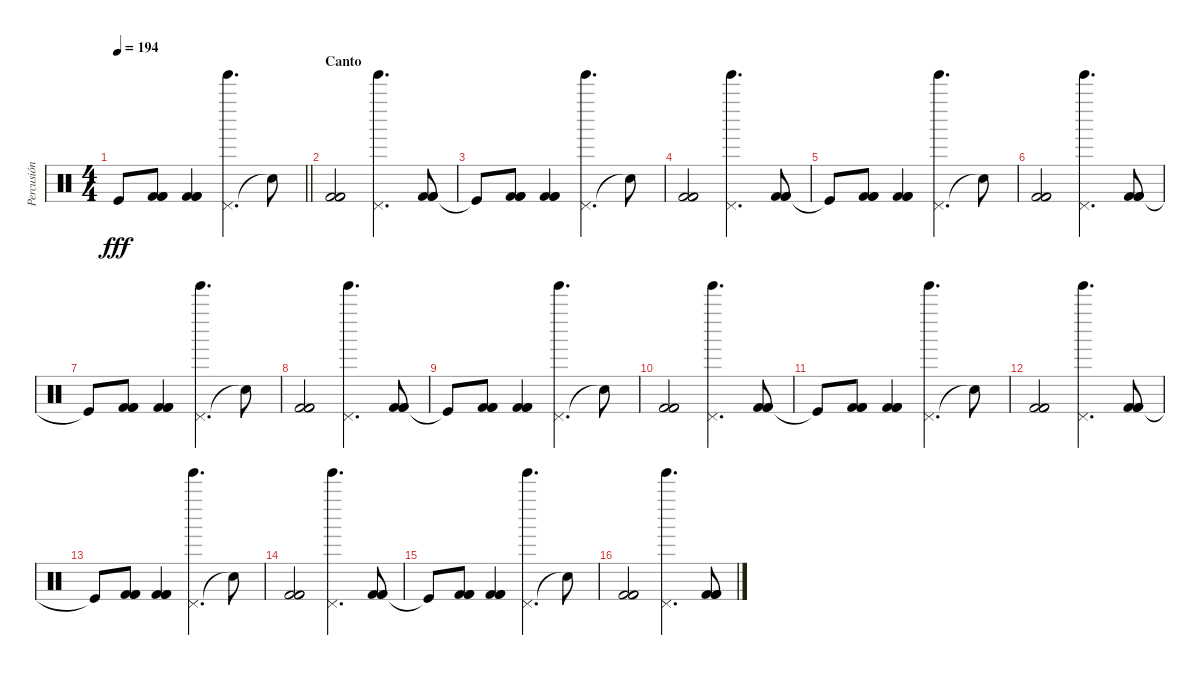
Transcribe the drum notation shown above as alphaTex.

\track ("Percusión" "Percusión") {instrument percussion}
\staff {score}
\articulation defaults
\ts (4 4)
\tempo 194
\clef neutral
\barLineRight lightlight
\ks c "Kick (hit)"{t}.8{dy fff}
("Kick (hit) 2" "Kick (hit) 2" "Kick (hit) 2").8 ("Kick (hit) 2" "Kick (hit) 2" "Kick (hit) 2").4 ("Pedal Hi-Hat (hit)" "Tinkle Bell (hit)").4{d} "Snare (hit)"{t}.8 |
\section ("" "Canto")
("Kick (hit) 2" "Kick (hit) 2" "Kick (hit) 2").2 ("Pedal Hi-Hat (hit)" "Tinkle Bell (hit)").4{d} ("Kick (hit) 2" "Kick (hit) 2" "Kick (hit) 2").8 |
"Kick (hit)"{t}.8 ("Kick (hit) 2" "Kick (hit) 2" "Kick (hit) 2").8 ("Kick (hit) 2" "Kick (hit) 2" "Kick (hit) 2").4 ("Pedal Hi-Hat (hit)" "Tinkle Bell (hit)").4{d} "Snare (hit)"{t}.8 |
("Kick (hit) 2" "Kick (hit) 2" "Kick (hit) 2").2 ("Pedal Hi-Hat (hit)" "Tinkle Bell (hit)").4{d} ("Kick (hit) 2" "Kick (hit) 2" "Kick (hit) 2").8 |
"Kick (hit)"{t}.8 ("Kick (hit) 2" "Kick (hit) 2" "Kick (hit) 2").8 ("Kick (hit) 2" "Kick (hit) 2" "Kick (hit) 2").4 ("Pedal Hi-Hat (hit)" "Tinkle Bell (hit)").4{d} "Snare (hit)"{t}.8 |
("Kick (hit) 2" "Kick (hit) 2" "Kick (hit) 2").2 ("Pedal Hi-Hat (hit)" "Tinkle Bell (hit)").4{d} ("Kick (hit) 2" "Kick (hit) 2" "Kick (hit) 2").8 |
"Kick (hit)"{t}.8 ("Kick (hit) 2" "Kick (hit) 2" "Kick (hit) 2").8 ("Kick (hit) 2" "Kick (hit) 2" "Kick (hit) 2").4 ("Pedal Hi-Hat (hit)" "Tinkle Bell (hit)").4{d} "Snare (hit)"{t}.8 |
("Kick (hit) 2" "Kick (hit) 2" "Kick (hit) 2").2 ("Pedal Hi-Hat (hit)" "Tinkle Bell (hit)").4{d} ("Kick (hit) 2" "Kick (hit) 2" "Kick (hit) 2").8 |
"Kick (hit)"{t}.8 ("Kick (hit) 2" "Kick (hit) 2" "Kick (hit) 2").8 ("Kick (hit) 2" "Kick (hit) 2" "Kick (hit) 2").4 ("Pedal Hi-Hat (hit)" "Tinkle Bell (hit)").4{d} "Snare (hit)"{t}.8 |
("Kick (hit) 2" "Kick (hit) 2" "Kick (hit) 2").2 ("Pedal Hi-Hat (hit)" "Tinkle Bell (hit)").4{d} ("Kick (hit) 2" "Kick (hit) 2" "Kick (hit) 2").8 |
"Kick (hit)"{t}.8 ("Kick (hit) 2" "Kick (hit) 2" "Kick (hit) 2").8 ("Kick (hit) 2" "Kick (hit) 2" "Kick (hit) 2").4 ("Pedal Hi-Hat (hit)" "Tinkle Bell (hit)").4{d} "Snare (hit)"{t}.8 |
("Kick (hit) 2" "Kick (hit) 2" "Kick (hit) 2").2 ("Pedal Hi-Hat (hit)" "Tinkle Bell (hit)").4{d} ("Kick (hit) 2" "Kick (hit) 2" "Kick (hit) 2").8 |
"Kick (hit)"{t}.8 ("Kick (hit) 2" "Kick (hit) 2" "Kick (hit) 2").8 ("Kick (hit) 2" "Kick (hit) 2" "Kick (hit) 2").4 ("Pedal Hi-Hat (hit)" "Tinkle Bell (hit)").4{d} "Snare (hit)"{t}.8 |
("Kick (hit) 2" "Kick (hit) 2" "Kick (hit) 2").2 ("Pedal Hi-Hat (hit)" "Tinkle Bell (hit)").4{d} ("Kick (hit) 2" "Kick (hit) 2" "Kick (hit) 2").8 |
"Kick (hit)"{t}.8 ("Kick (hit) 2" "Kick (hit) 2" "Kick (hit) 2").8 ("Kick (hit) 2" "Kick (hit) 2" "Kick (hit) 2").4 ("Pedal Hi-Hat (hit)" "Tinkle Bell (hit)").4{d} "Snare (hit)"{t}.8 |
("Kick (hit) 2" "Kick (hit) 2" "Kick (hit) 2").2 ("Pedal Hi-Hat (hit)" "Tinkle Bell (hit)").4{d} ("Kick (hit) 2" "Kick (hit) 2" "Kick (hit) 2").8
